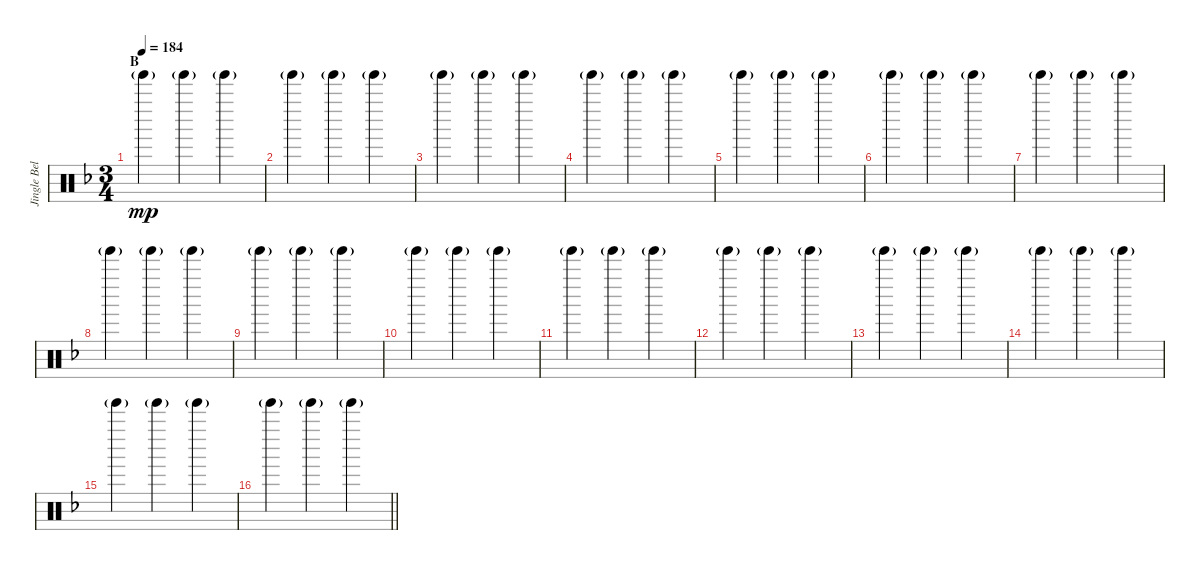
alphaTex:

\track ("Jingle Bells" "Jingle Bel") {instrument percussion}
\staff {score}
\articulation defaults
\ts (3 4)
\section ("" "B")
\tempo 184
\clef neutral
\ks f "Tinkle Bell (hit)"{g}.4{dy mp} "Tinkle Bell (hit)"{g}.4 "Tinkle Bell (hit)"{g}.4
|
"Tinkle Bell (hit)"{g}.4 "Tinkle Bell (hit)"{g}.4 "Tinkle Bell (hit)"{g}.4 |
"Tinkle Bell (hit)"{g}.4 "Tinkle Bell (hit)"{g}.4 "Tinkle Bell (hit)"{g}.4 |
"Tinkle Bell (hit)"{g}.4 "Tinkle Bell (hit)"{g}.4 "Tinkle Bell (hit)"{g}.4 |
"Tinkle Bell (hit)"{g}.4 "Tinkle Bell (hit)"{g}.4 "Tinkle Bell (hit)"{g}.4 |
"Tinkle Bell (hit)"{g}.4 "Tinkle Bell (hit)"{g}.4 "Tinkle Bell (hit)"{g}.4 |
"Tinkle Bell (hit)"{g}.4 "Tinkle Bell (hit)"{g}.4 "Tinkle Bell (hit)"{g}.4 |
"Tinkle Bell (hit)"{g}.4 "Tinkle Bell (hit)"{g}.4 "Tinkle Bell (hit)"{g}.4 |
"Tinkle Bell (hit)"{g}.4 "Tinkle Bell (hit)"{g}.4 "Tinkle Bell (hit)"{g}.4 |
"Tinkle Bell (hit)"{g}.4 "Tinkle Bell (hit)"{g}.4 "Tinkle Bell (hit)"{g}.4 |
"Tinkle Bell (hit)"{g}.4 "Tinkle Bell (hit)"{g}.4 "Tinkle Bell (hit)"{g}.4 |
"Tinkle Bell (hit)"{g}.4 "Tinkle Bell (hit)"{g}.4 "Tinkle Bell (hit)"{g}.4 |
"Tinkle Bell (hit)"{g}.4 "Tinkle Bell (hit)"{g}.4 "Tinkle Bell (hit)"{g}.4 |
"Tinkle Bell (hit)"{g}.4 "Tinkle Bell (hit)"{g}.4 "Tinkle Bell (hit)"{g}.4 |
"Tinkle Bell (hit)"{g}.4 "Tinkle Bell (hit)"{g}.4 "Tinkle Bell (hit)"{g}.4 |
\barLineRight lightlight "Tinkle Bell (hit)"{g}.4 "Tinkle Bell (hit)"{g}.4 "Tinkle Bell (hit)"{g}.4
